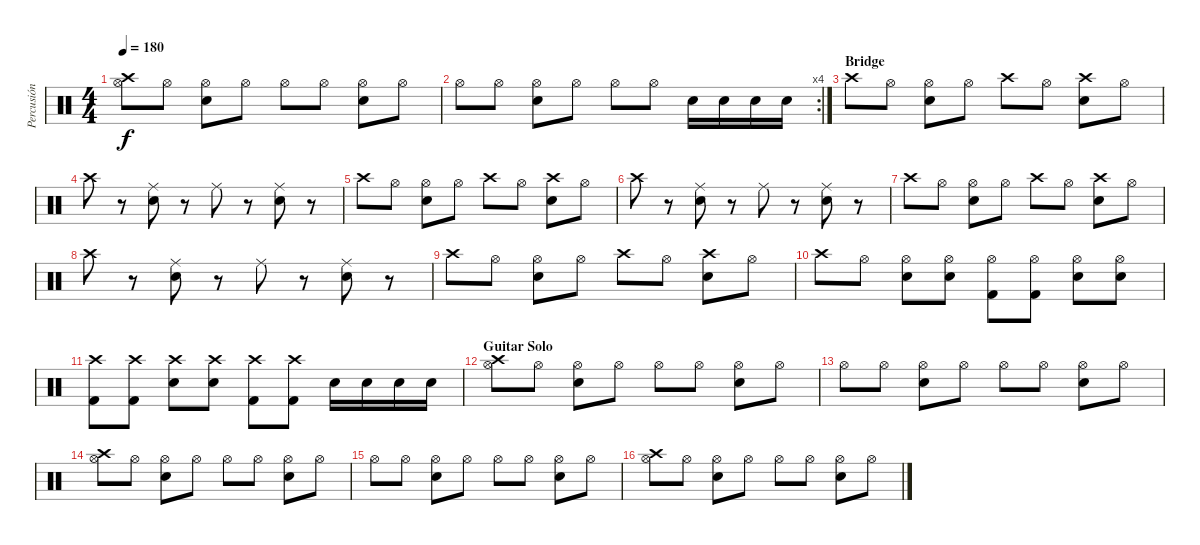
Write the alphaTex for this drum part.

\track ("Percusión" "Percusión") {instrument percussion}
\staff {score}
\articulation defaults
\ts (4 4)
\tempo 180
\clef neutral
\ks c
("Hi-Hat (open)" "Crash high (hit)").8{dy f} "Hi-Hat (open)".8 ("Hi-Hat (open)" "Snare (hit) 2").8 "Hi-Hat (open)".8 "Hi-Hat (open)".8 "Hi-Hat (open)".8 ("Hi-Hat (open)" "Snare (hit) 2").8 "Hi-Hat (open)".8 |
\rc 4 "Hi-Hat (open)".8 "Hi-Hat (open)".8
("Hi-Hat (open)" "Snare (hit) 2").8 "Hi-Hat (open)".8 "Hi-Hat (open)".8 "Hi-Hat (open)".8 "Snare (hit) 2".16 "Snare (hit) 2".16 "Snare (hit) 2".16 "Snare (hit) 2".16 |
\section ("" "Bridge")
"Crash high (hit)".8 "Hi-Hat (open)".8 ("Hi-Hat (open)" "Snare (hit) 2").8 "Hi-Hat (open)".8 "Crash high (hit)".8 "Hi-Hat (open)".8 ("Crash high (hit)" "Snare (hit) 2").8 "Hi-Hat (open)".8 |
"Crash high (hit)".8 r.8 ("Ride (middle)" "Snare (hit) 2").8 r.8 "Ride (middle)".8 r.8 ("Ride (middle)" "Snare (hit) 2").8 r.8 |
"Crash high (hit)".8 "Hi-Hat (open)".8 ("Hi-Hat (open)" "Snare (hit) 2").8 "Hi-Hat (open)".8 "Crash high (hit)".8 "Hi-Hat (open)".8 ("Crash high (hit)" "Snare (hit) 2").8 "Hi-Hat (open)".8 |
"Crash high (hit)".8 r.8 ("Ride (middle)" "Snare (hit) 2").8 r.8 "Ride (middle)".8 r.8 ("Ride (middle)" "Snare (hit) 2").8 r.8 |
"Crash high (hit)".8 "Hi-Hat (open)".8 ("Hi-Hat (open)" "Snare (hit) 2").8 "Hi-Hat (open)".8 "Crash high (hit)".8 "Hi-Hat (open)".8 ("Crash high (hit)" "Snare (hit) 2").8 "Hi-Hat (open)".8 |
"Crash high (hit)".8 r.8 ("Ride (middle)" "Snare (hit) 2").8 r.8 "Ride (middle)".8 r.8 ("Ride (middle)" "Snare (hit) 2").8 r.8 |
"Crash high (hit)".8 "Hi-Hat (open)".8 ("Hi-Hat (open)" "Snare (hit) 2").8 "Hi-Hat (open)".8 "Crash high (hit)".8 "Hi-Hat (open)".8 ("Crash high (hit)" "Snare (hit) 2").8 "Hi-Hat (open)".8 |
"Crash high (hit)".8 "Hi-Hat (open)".8 ("Hi-Hat (open)" "Snare (hit) 2").8 ("Hi-Hat (open)" "Snare (hit) 2").8 ("Hi-Hat (open)" "Kick (hit) 2").8 ("Hi-Hat (open)" "Kick (hit) 2").8 ("Hi-Hat (open)" "Snare (hit) 2").8 ("Hi-Hat (open)" "Snare (hit) 2").8 |
("Crash high (hit)" "Kick (hit) 2").8 ("Crash high (hit)" "Kick (hit) 2").8 ("Crash high (hit)" "Snare (hit) 2").8 ("Crash high (hit)" "Snare (hit) 2").8 ("Crash high (hit)" "Kick (hit) 2").8 ("Crash high (hit)" "Kick (hit) 2").8 "Snare (hit) 2".16 "Snare (hit) 2".16 "Snare (hit) 2".16 "Snare (hit) 2".16 |
\section ("" "Guitar Solo")
("Hi-Hat (open)" "Crash high (hit)").8 "Hi-Hat (open)".8 ("Hi-Hat (open)" "Snare (hit) 2").8 "Hi-Hat (open)".8 "Hi-Hat (open)".8 "Hi-Hat (open)".8 ("Hi-Hat (open)" "Snare (hit) 2").8 "Hi-Hat (open)".8 |
"Hi-Hat (open)".8 "Hi-Hat (open)".8 ("Hi-Hat (open)" "Snare (hit) 2").8 "Hi-Hat (open)".8 "Hi-Hat (open)".8 "Hi-Hat (open)".8 ("Hi-Hat (open)" "Snare (hit) 2").8 "Hi-Hat (open)".8 |
("Hi-Hat (open)" "Crash high (hit)").8 "Hi-Hat (open)".8 ("Hi-Hat (open)" "Snare (hit) 2").8 "Hi-Hat (open)".8 "Hi-Hat (open)".8 "Hi-Hat (open)".8 ("Hi-Hat (open)" "Snare (hit) 2").8 "Hi-Hat (open)".8 |
"Hi-Hat (open)".8 "Hi-Hat (open)".8 ("Hi-Hat (open)" "Snare (hit) 2").8 "Hi-Hat (open)".8 "Hi-Hat (open)".8 "Hi-Hat (open)".8 ("Snare (hit) 2" "Hi-Hat (open)").8 "Hi-Hat (open)".8 |
("Hi-Hat (open)" "Crash high (hit)").8 "Hi-Hat (open)".8 ("Hi-Hat (open)" "Snare (hit) 2").8 "Hi-Hat (open)".8 "Hi-Hat (open)".8 "Hi-Hat (open)".8 ("Hi-Hat (open)" "Snare (hit) 2").8 "Hi-Hat (open)".8
